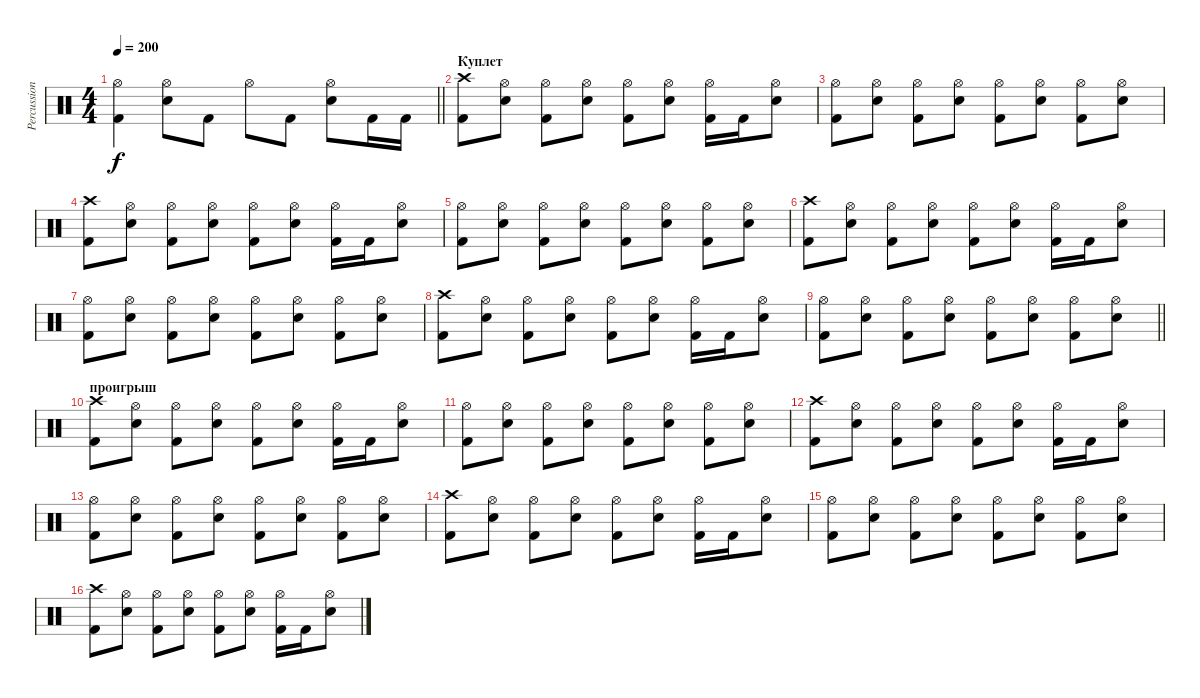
\track ("Percussion" "Percussion") {instrument percussion}
\staff {score}
\articulation defaults
\ts (4 4)
\tempo 200
\clef neutral
\barLineRight lightlight
\ks c
("Hi-Hat (open)" "Kick (hit) 2").4{dy f} ("Hi-Hat (open)" "Snare (hit) 2").8 "Kick (hit) 2".8 "Hi-Hat (open)".8 "Kick (hit) 2".8 ("Hi-Hat (open)" "Snare (hit) 2").8 "Kick (hit) 2".16 "Kick (hit) 2".16 |
\section ("" "Куплет")
("Crash high (hit)" "Kick (hit) 2").8 ("Hi-Hat (open)" "Snare (hit) 2").8 ("Hi-Hat (open)" "Kick (hit) 2").8 ("Hi-Hat (open)" "Snare (hit) 2").8 ("Hi-Hat (open)" "Kick (hit) 2").8 ("Hi-Hat (open)" "Snare (hit) 2").8 ("Hi-Hat (open)" "Kick (hit) 2").16 "Kick (hit) 2".16 ("Hi-Hat (open)" "Snare (hit) 2").8 |
("Hi-Hat (open)" "Kick (hit) 2").8 ("Hi-Hat (open)" "Snare (hit) 2").8 ("Hi-Hat (open)" "Kick (hit) 2").8 ("Hi-Hat (open)" "Snare (hit) 2").8 ("Hi-Hat (open)" "Kick (hit) 2").8 ("Hi-Hat (open)" "Snare (hit) 2").8 ("Hi-Hat (open)" "Kick (hit) 2").8 ("Hi-Hat (open)" "Snare (hit) 2").8 |
("Crash high (hit)" "Kick (hit) 2").8 ("Hi-Hat (open)" "Snare (hit) 2").8 ("Hi-Hat (open)" "Kick (hit) 2").8 ("Hi-Hat (open)" "Snare (hit) 2").8 ("Hi-Hat (open)" "Kick (hit) 2").8 ("Hi-Hat (open)" "Snare (hit) 2").8 ("Hi-Hat (open)" "Kick (hit) 2").16 "Kick (hit) 2".16 ("Hi-Hat (open)" "Snare (hit) 2").8 |
("Hi-Hat (open)" "Kick (hit) 2").8 ("Hi-Hat (open)" "Snare (hit) 2").8 ("Hi-Hat (open)" "Kick (hit) 2").8 ("Hi-Hat (open)" "Snare (hit) 2").8 ("Hi-Hat (open)" "Kick (hit) 2").8 ("Hi-Hat (open)" "Snare (hit) 2").8 ("Hi-Hat (open)" "Kick (hit) 2").8 ("Hi-Hat (open)" "Snare (hit) 2").8 |
("Crash high (hit)" "Kick (hit) 2").8 ("Hi-Hat (open)" "Snare (hit) 2").8 ("Hi-Hat (open)" "Kick (hit) 2").8 ("Hi-Hat (open)" "Snare (hit) 2").8 ("Hi-Hat (open)" "Kick (hit) 2").8 ("Hi-Hat (open)" "Snare (hit) 2").8 ("Hi-Hat (open)" "Kick (hit) 2").16 "Kick (hit) 2".16 ("Hi-Hat (open)" "Snare (hit) 2").8 |
("Hi-Hat (open)" "Kick (hit) 2").8 ("Hi-Hat (open)" "Snare (hit) 2").8 ("Hi-Hat (open)" "Kick (hit) 2").8 ("Hi-Hat (open)" "Snare (hit) 2").8 ("Hi-Hat (open)" "Kick (hit) 2").8 ("Hi-Hat (open)" "Snare (hit) 2").8 ("Hi-Hat (open)" "Kick (hit) 2").8 ("Hi-Hat (open)" "Snare (hit) 2").8 |
("Crash high (hit)" "Kick (hit) 2").8 ("Hi-Hat (open)" "Snare (hit) 2").8 ("Hi-Hat (open)" "Kick (hit) 2").8 ("Hi-Hat (open)" "Snare (hit) 2").8 ("Hi-Hat (open)" "Kick (hit) 2").8 ("Hi-Hat (open)" "Snare (hit) 2").8 ("Hi-Hat (open)" "Kick (hit) 2").16 "Kick (hit) 2".16 ("Hi-Hat (open)" "Snare (hit) 2").8 |
\barLineRight lightlight
("Hi-Hat (open)" "Kick (hit) 2").8 ("Hi-Hat (open)" "Snare (hit) 2").8 ("Hi-Hat (open)" "Kick (hit) 2").8 ("Hi-Hat (open)" "Snare (hit) 2").8 ("Hi-Hat (open)" "Kick (hit) 2").8 ("Hi-Hat (open)" "Snare (hit) 2").8 ("Hi-Hat (open)" "Kick (hit) 2").8 ("Hi-Hat (open)" "Snare (hit) 2").8 |
\section ("" "проигрыш")
("Crash high (hit)" "Kick (hit) 2").8 ("Hi-Hat (open)" "Snare (hit) 2").8 ("Hi-Hat (open)" "Kick (hit) 2").8 ("Hi-Hat (open)" "Snare (hit) 2").8 ("Hi-Hat (open)" "Kick (hit) 2").8 ("Hi-Hat (open)" "Snare (hit) 2").8 ("Hi-Hat (open)" "Kick (hit) 2").16 "Kick (hit) 2".16 ("Hi-Hat (open)" "Snare (hit) 2").8 |
("Hi-Hat (open)" "Kick (hit) 2").8 ("Hi-Hat (open)" "Snare (hit) 2").8 ("Hi-Hat (open)" "Kick (hit) 2").8 ("Hi-Hat (open)" "Snare (hit) 2").8 ("Hi-Hat (open)" "Kick (hit) 2").8 ("Hi-Hat (open)" "Snare (hit) 2").8 ("Hi-Hat (open)" "Kick (hit) 2").8 ("Hi-Hat (open)" "Snare (hit) 2").8 |
("Crash high (hit)" "Kick (hit) 2").8 ("Hi-Hat (open)" "Snare (hit) 2").8 ("Hi-Hat (open)" "Kick (hit) 2").8 ("Hi-Hat (open)" "Snare (hit) 2").8 ("Hi-Hat (open)" "Kick (hit) 2").8 ("Hi-Hat (open)" "Snare (hit) 2").8 ("Hi-Hat (open)" "Kick (hit) 2").16 "Kick (hit) 2".16 ("Hi-Hat (open)" "Snare (hit) 2").8 |
("Hi-Hat (open)" "Kick (hit) 2").8 ("Hi-Hat (open)" "Snare (hit) 2").8 ("Hi-Hat (open)" "Kick (hit) 2").8 ("Hi-Hat (open)" "Snare (hit) 2").8 ("Hi-Hat (open)" "Kick (hit) 2").8 ("Hi-Hat (open)" "Snare (hit) 2").8 ("Hi-Hat (open)" "Kick (hit) 2").8 ("Hi-Hat (open)" "Snare (hit) 2").8 |
("Crash high (hit)" "Kick (hit) 2").8 ("Hi-Hat (open)" "Snare (hit) 2").8 ("Hi-Hat (open)" "Kick (hit) 2").8 ("Hi-Hat (open)" "Snare (hit) 2").8 ("Hi-Hat (open)" "Kick (hit) 2").8 ("Hi-Hat (open)" "Snare (hit) 2").8 ("Hi-Hat (open)" "Kick (hit) 2").16 "Kick (hit) 2".16 ("Hi-Hat (open)" "Snare (hit) 2").8 |
("Hi-Hat (open)" "Kick (hit) 2").8 ("Hi-Hat (open)" "Snare (hit) 2").8 ("Hi-Hat (open)" "Kick (hit) 2").8 ("Hi-Hat (open)" "Snare (hit) 2").8 ("Hi-Hat (open)" "Kick (hit) 2").8 ("Hi-Hat (open)" "Snare (hit) 2").8 ("Hi-Hat (open)" "Kick (hit) 2").8 ("Hi-Hat (open)" "Snare (hit) 2").8 |
("Crash high (hit)" "Kick (hit) 2").8 ("Hi-Hat (open)" "Snare (hit) 2").8 ("Hi-Hat (open)" "Kick (hit) 2").8 ("Hi-Hat (open)" "Snare (hit) 2").8 ("Hi-Hat (open)" "Kick (hit) 2").8 ("Hi-Hat (open)" "Snare (hit) 2").8 ("Hi-Hat (open)" "Kick (hit) 2").16 "Kick (hit) 2".16 ("Hi-Hat (open)" "Snare (hit) 2").8
